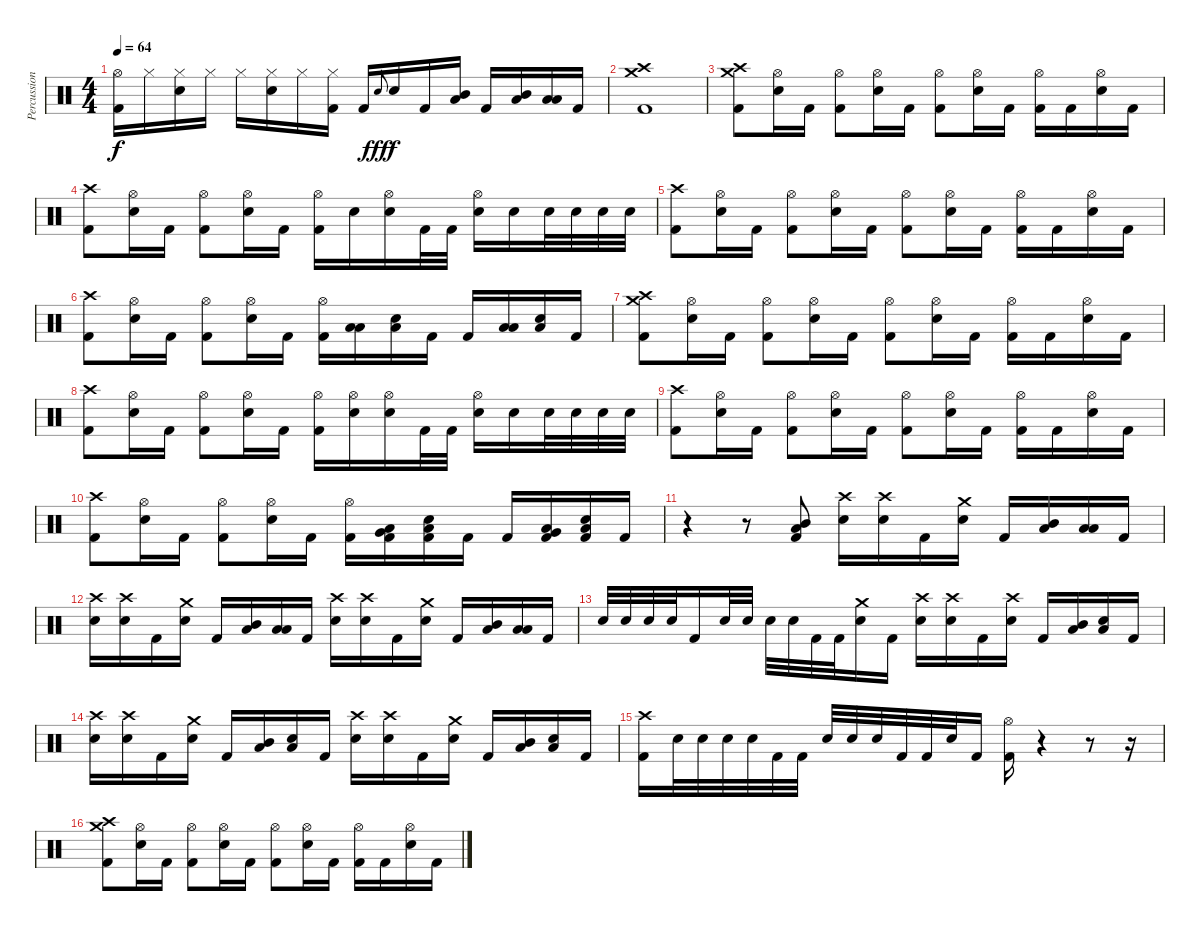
\track ("Percussion" "Percussion") {instrument percussion}
\staff {score}
\articulation defaults
\ts (4 4)
\tempo 64
\clef neutral
\ks c
("Hi-Hat (open)" "Kick (hit) 2").16{dy f} "Hi-Hat (closed)".16 ("Hi-Hat (closed)" "Electric Snare (hit)").16 "Hi-Hat (closed)".16 "Hi-Hat (closed)".16 ("Hi-Hat (closed)" "Electric Snare (hit)").16 "Hi-Hat (closed)".16 ("Hi-Hat (closed)" "Kick (hit) 2").16 "Kick (hit) 2".16 "Electric Snare (hit)".8{gr onbeat dy fff} "Electric Snare (hit)".16{dy f} "Kick (hit) 2".16 ("Low Tom (hit)" "Mid Tom (hit)").16 "Kick (hit) 2".16 ("Low Floor Tom (hit)" "Mid Tom (hit)").16 ("Low Floor Tom (hit)" "Low Tom (hit)").16 "Kick (hit) 2".16 |
("Crash high (hit)" "Crash medium (hit)" "Kick (hit) 2").1 |
("Crash high (hit)" "Crash medium (hit)" "Kick (hit) 2").8 ("Hi-Hat (open)" "Electric Snare (hit)").16 "Kick (hit) 2".16 ("Hi-Hat (open)" "Kick (hit) 2").8 ("Hi-Hat (open)" "Electric Snare (hit)").16 "Kick (hit) 2".16 ("Hi-Hat (open)" "Kick (hit) 2").8 ("Hi-Hat (open)" "Electric Snare (hit)").16 "Kick (hit) 2".16 ("Hi-Hat (open)" "Kick (hit) 2").16 "Kick (hit) 2".16 ("Hi-Hat (open)" "Electric Snare (hit)").16 "Kick (hit) 2".16 |
("Crash high (hit)" "Kick (hit) 2").8 ("Hi-Hat (open)" "Electric Snare (hit)").16 "Kick (hit) 2".16 ("Hi-Hat (open)" "Kick (hit) 2").8 ("Hi-Hat (open)" "Electric Snare (hit)").16 "Kick (hit) 2".16 ("Hi-Hat (open)" "Kick (hit) 2").16 "Electric Snare (hit)".16 ("Hi-Hat (open)" "Electric Snare (hit)").16 "Kick (hit) 2".32 "Kick (hit) 2".32 ("Hi-Hat (open)" "Electric Snare (hit)").16 "Electric Snare (hit)".16 "Electric Snare (hit)".32 "Electric Snare (hit)".32 "Electric Snare (hit)".32 "Electric Snare (hit)".32 |
("Crash high (hit)" "Kick (hit) 2").8 ("Hi-Hat (open)" "Electric Snare (hit)").16 "Kick (hit) 2".16 ("Hi-Hat (open)" "Kick (hit) 2").8 ("Hi-Hat (open)" "Electric Snare (hit)").16 "Kick (hit) 2".16 ("Hi-Hat (open)" "Kick (hit) 2").8 ("Hi-Hat (open)" "Electric Snare (hit)").16 "Kick (hit) 2".16 ("Hi-Hat (open)" "Kick (hit) 2").16 "Kick (hit) 2".16 ("Hi-Hat (open)" "Electric Snare (hit)").16 "Kick (hit) 2".16 |
("Crash high (hit)" "Kick (hit) 2").8 ("Hi-Hat (open)" "Electric Snare (hit)").16 "Kick (hit) 2".16 ("Hi-Hat (open)" "Kick (hit) 2").8 ("Hi-Hat (open)" "Electric Snare (hit)").16 "Kick (hit) 2".16 ("Hi-Hat (open)" "Kick (hit) 2").16 ("Low Floor Tom (hit)" "Low Tom (hit)").16 ("Low Floor Tom (hit)" "Electric Snare (hit)").16 "Kick (hit) 2".16 "Kick (hit) 2".16 ("Low Tom (hit)" "Low Floor Tom (hit)").16 ("Low Floor Tom (hit)" "Electric Snare (hit)").16 "Kick (hit) 2".16 |
("Crash high (hit)" "Crash medium (hit)" "Kick (hit) 2").8 ("Hi-Hat (open)" "Electric Snare (hit)").16 "Kick (hit) 2".16 ("Hi-Hat (open)" "Kick (hit) 2").8 ("Hi-Hat (open)" "Electric Snare (hit)").16 "Kick (hit) 2".16 ("Hi-Hat (open)" "Kick (hit) 2").8 ("Hi-Hat (open)" "Electric Snare (hit)").16 "Kick (hit) 2".16 ("Hi-Hat (open)" "Kick (hit) 2").16 "Kick (hit) 2".16 ("Hi-Hat (open)" "Electric Snare (hit)").16 "Kick (hit) 2".16 |
("Crash high (hit)" "Kick (hit) 2").8 ("Hi-Hat (open)" "Electric Snare (hit)").16 "Kick (hit) 2".16 ("Hi-Hat (open)" "Kick (hit) 2").8 ("Hi-Hat (open)" "Electric Snare (hit)").16 "Kick (hit) 2".16 ("Hi-Hat (open)" "Kick (hit) 2").16 ("Hi-Hat (open)" "Electric Snare (hit)").16 ("Hi-Hat (open)" "Electric Snare (hit)").16 "Kick (hit) 2".32 "Kick (hit) 2".32 ("Hi-Hat (open)" "Electric Snare (hit)").16 "Electric Snare (hit)".16 "Electric Snare (hit)".32 "Electric Snare (hit)".32 "Electric Snare (hit)".32 "Electric Snare (hit)".32 |
("Crash high (hit)" "Kick (hit) 2").8 ("Hi-Hat (open)" "Electric Snare (hit)").16 "Kick (hit) 2".16 ("Hi-Hat (open)" "Kick (hit) 2").8 ("Hi-Hat (open)" "Electric Snare (hit)").16 "Kick (hit) 2".16 ("Hi-Hat (open)" "Kick (hit) 2").8 ("Hi-Hat (open)" "Electric Snare (hit)").16 "Kick (hit) 2".16 ("Hi-Hat (open)" "Kick (hit) 2").16 "Kick (hit) 2".16 ("Hi-Hat (open)" "Electric Snare (hit)").16 "Kick (hit) 2".16 |
("Crash high (hit)" "Kick (hit) 2").8 ("Hi-Hat (open)" "Electric Snare (hit)").16 "Kick (hit) 2".16 ("Hi-Hat (open)" "Kick (hit) 2").8 ("Hi-Hat (open)" "Electric Snare (hit)").16 "Kick (hit) 2".16 ("Hi-Hat (open)" "Kick (hit) 2").16 ("Very Low Tom (hit)" "Low Floor Tom (hit)" "Kick (hit) 2").16 ("Low Floor Tom (hit)" "Electric Snare (hit)" "Kick (hit) 2").16 "Kick (hit) 2".16 "Kick (hit) 2".16 ("Very Low Tom (hit)" "Low Floor Tom (hit)" "Kick (hit) 2").16 ("Low Floor Tom (hit)" "Electric Snare (hit)" "Kick (hit) 2").16 "Kick (hit) 2".16 |
r.4 r.8 ("Low Floor Tom (hit)" "Mid Tom (hit)" "Kick (hit) 2").8 ("Crash high (hit)" "Electric Snare (hit)").16 ("Crash high (hit)" "Electric Snare (hit)").16 "Kick (hit) 2".16 ("Crash medium (hit)" "Electric Snare (hit)").16 "Kick (hit) 2".16 ("Low Floor Tom (hit)" "Mid Tom (hit)").16 ("Low Floor Tom (hit)" "Low Tom (hit)").16 "Kick (hit) 2".16 |
("Crash high (hit)" "Electric Snare (hit)").16 ("Crash high (hit)" "Electric Snare (hit)").16 "Kick (hit) 2".16 ("Crash medium (hit)" "Electric Snare (hit)").16 "Kick (hit) 2".16 ("Low Floor Tom (hit)" "Mid Tom (hit)").16 ("Low Floor Tom (hit)" "Low Tom (hit)").16 "Kick (hit) 2".16 ("Crash high (hit)" "Electric Snare (hit)").16 ("Crash high (hit)" "Electric Snare (hit)").16 "Kick (hit) 2".16 ("Crash medium (hit)" "Electric Snare (hit)").16 "Kick (hit) 2".16 ("Low Floor Tom (hit)" "Mid Tom (hit)").16 ("Low Floor Tom (hit)" "Low Tom (hit)").16 "Kick (hit) 2".16 |
"Electric Snare (hit)".32 "Electric Snare (hit)".32 "Electric Snare (hit)".32 "Electric Snare (hit)".32 "Kick (hit) 2".16 "Electric Snare (hit)".32 "Electric Snare (hit)".32 "Electric Snare (hit)".32 "Electric Snare (hit)".32 "Kick (hit) 2".32 "Kick (hit) 2".32 ("Crash medium (hit)" "Electric Snare (hit)").16 "Kick (hit) 2".16 ("Crash high (hit)" "Electric Snare (hit)").16 ("Crash high (hit)" "Electric Snare (hit)").16 "Kick (hit) 2".16 ("Crash high (hit)" "Electric Snare (hit)").16 "Kick (hit) 2".16 ("Low Floor Tom (hit)" "Mid Tom (hit)").16 ("Low Floor Tom (hit)" "Electric Snare (hit)").16 "Kick (hit) 2".16 |
("Crash high (hit)" "Electric Snare (hit)").16 ("Crash high (hit)" "Electric Snare (hit)").16 "Kick (hit) 2".16 ("Crash medium (hit)" "Electric Snare (hit)").16 "Kick (hit) 2".16 ("Low Floor Tom (hit)" "Mid Tom (hit)").16 ("Low Floor Tom (hit)" "Electric Snare (hit)").16 "Kick (hit) 2".16 ("Crash high (hit)" "Electric Snare (hit)").16 ("Crash high (hit)" "Electric Snare (hit)").16 "Kick (hit) 2".16 ("Crash medium (hit)" "Electric Snare (hit)").16 "Kick (hit) 2".16 ("Low Floor Tom (hit)" "Mid Tom (hit)").16 ("Low Floor Tom (hit)" "Electric Snare (hit)").16 "Kick (hit) 2".16 |
("Crash high (hit)" "Kick (hit) 2").16 "Electric Snare (hit)".32 "Electric Snare (hit)".32 "Electric Snare (hit)".32 "Electric Snare (hit)".32 "Kick (hit) 2".32 "Kick (hit) 2".32 "Electric Snare (hit)".32 "Electric Snare (hit)".32 "Electric Snare (hit)".32 "Kick (hit) 2".32 "Kick (hit) 2".32 "Electric Snare (hit)".32 "Kick (hit) 2".16 ("Hi-Hat (open)" "Kick (hit) 2").16 r.4 r.8 r.16 |
("Crash high (hit)" "Crash medium (hit)" "Kick (hit) 2").8 ("Hi-Hat (open)" "Electric Snare (hit)").16 "Kick (hit) 2".16 ("Hi-Hat (open)" "Kick (hit) 2").8 ("Hi-Hat (open)" "Electric Snare (hit)").16 "Kick (hit) 2".16 ("Hi-Hat (open)" "Kick (hit) 2").8 ("Hi-Hat (open)" "Electric Snare (hit)").16 "Kick (hit) 2".16 ("Hi-Hat (open)" "Kick (hit) 2").16 "Kick (hit) 2".16 ("Hi-Hat (open)" "Electric Snare (hit)").16 "Kick (hit) 2".16
